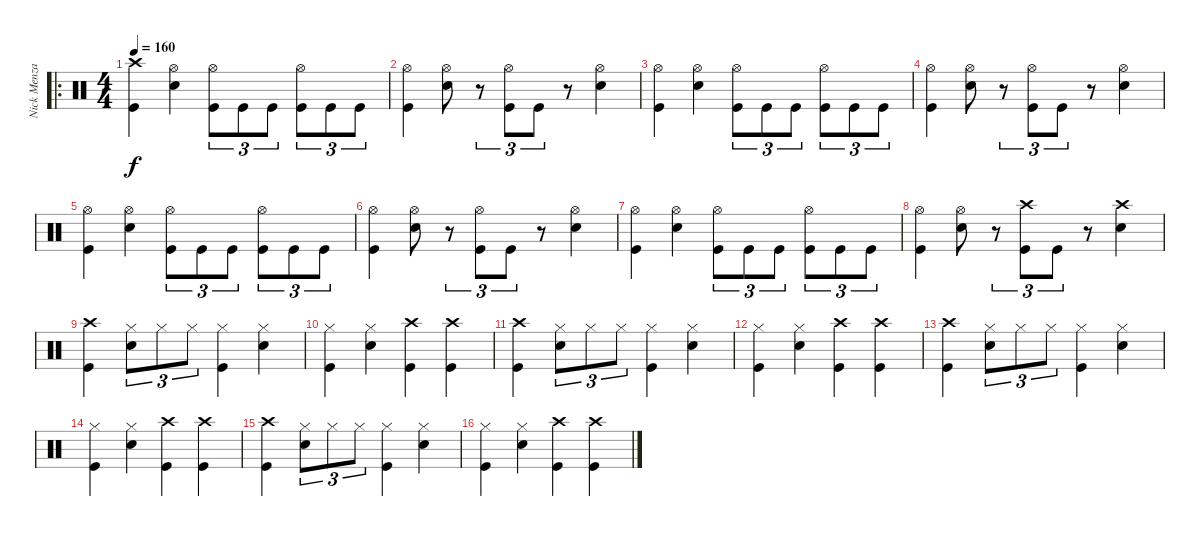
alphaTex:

\track ("Nick Menza" "Nick Menza") {instrument percussion}
\staff {score}
\articulation defaults
\ro
\ts (4 4)
\tempo 160
\clef neutral
\ks c
("Crash high (hit)" "Kick (hit)").4{dy f} ("Hi-Hat (open)" "Snare (hit) 2").4 ("Hi-Hat (open)" "Kick (hit)").8{tu (3 2)} "Kick (hit)".8{tu (3 2)} "Kick (hit)".8{tu (3 2)} ("Hi-Hat (open)" "Kick (hit)").8{tu (3 2)} "Kick (hit)".8{tu (3 2)} "Kick (hit)".8{tu (3 2)} |
("Hi-Hat (open)" "Kick (hit)").4 ("Hi-Hat (open)" "Snare (hit) 2").8 r.8{tu (3 2)} ("Hi-Hat (open)" "Kick (hit)").8{tu (3 2)} "Kick (hit)".8{tu (3 2)} r.8 ("Hi-Hat (open)" "Snare (hit) 2").4 |
("Hi-Hat (open)" "Kick (hit)").4 ("Hi-Hat (open)" "Snare (hit) 2").4 ("Hi-Hat (open)" "Kick (hit)").8{tu (3 2)} "Kick (hit)".8{tu (3 2)} "Kick (hit)".8{tu (3 2)} ("Hi-Hat (open)" "Kick (hit)").8{tu (3 2)} "Kick (hit)".8{tu (3 2)} "Kick (hit)".8{tu (3 2)} |
("Hi-Hat (open)" "Kick (hit)").4 ("Hi-Hat (open)" "Snare (hit) 2").8 r.8{tu (3 2)} ("Hi-Hat (open)" "Kick (hit)").8{tu (3 2)} "Kick (hit)".8{tu (3 2)} r.8 ("Hi-Hat (open)" "Snare (hit) 2").4 |
("Hi-Hat (open)" "Kick (hit)").4 ("Hi-Hat (open)" "Snare (hit) 2").4 ("Hi-Hat (open)" "Kick (hit)").8{tu (3 2)} "Kick (hit)".8{tu (3 2)} "Kick (hit)".8{tu (3 2)} ("Hi-Hat (open)" "Kick (hit)").8{tu (3 2)} "Kick (hit)".8{tu (3 2)} "Kick (hit)".8{tu (3 2)} |
("Hi-Hat (open)" "Kick (hit)").4 ("Hi-Hat (open)" "Snare (hit) 2").8 r.8{tu (3 2)} ("Hi-Hat (open)" "Kick (hit)").8{tu (3 2)} "Kick (hit)".8{tu (3 2)} r.8 ("Hi-Hat (open)" "Snare (hit) 2").4 |
("Hi-Hat (open)" "Kick (hit)").4 ("Hi-Hat (open)" "Snare (hit) 2").4 ("Hi-Hat (open)" "Kick (hit)").8{tu (3 2)} "Kick (hit)".8{tu (3 2)} "Kick (hit)".8{tu (3 2)} ("Hi-Hat (open)" "Kick (hit)").8{tu (3 2)} "Kick (hit)".8{tu (3 2)} "Kick (hit)".8{tu (3 2)} |
("Hi-Hat (open)" "Kick (hit)").4 ("Hi-Hat (open)" "Snare (hit) 2").8 r.8{tu (3 2)} ("Crash high (hit)" "Kick (hit)").8{tu (3 2)} "Kick (hit)".8{tu (3 2)} r.8 ("Crash high (hit)" "Snare (hit) 2").4 |
("Crash high (hit)" "Kick (hit)").4 ("Hi-Hat (closed)" "Snare (hit) 2").8{tu (3 2)} "Hi-Hat (closed)".8{tu (3 2)} "Hi-Hat (closed)".8{tu (3 2)} ("Hi-Hat (closed)" "Kick (hit)").4 ("Hi-Hat (closed)" "Snare (hit) 2").4 |
("Hi-Hat (closed)" "Kick (hit)").4 ("Hi-Hat (closed)" "Snare (hit) 2").4 ("Crash high (hit)" "Kick (hit)").4 ("Crash high (hit)" "Kick (hit)").4 |
("Crash high (hit)" "Kick (hit)").4 ("Hi-Hat (closed)" "Snare (hit) 2").8{tu (3 2)} "Hi-Hat (closed)".8{tu (3 2)} "Hi-Hat (closed)".8{tu (3 2)} ("Hi-Hat (closed)" "Kick (hit)").4 ("Hi-Hat (closed)" "Snare (hit) 2").4 |
("Hi-Hat (closed)" "Kick (hit)").4 ("Hi-Hat (closed)" "Snare (hit) 2").4 ("Crash high (hit)" "Kick (hit)").4 ("Crash high (hit)" "Kick (hit)").4 |
("Crash high (hit)" "Kick (hit)").4 ("Hi-Hat (closed)" "Snare (hit) 2").8{tu (3 2)} "Hi-Hat (closed)".8{tu (3 2)} "Hi-Hat (closed)".8{tu (3 2)} ("Hi-Hat (closed)" "Kick (hit)").4 ("Hi-Hat (closed)" "Snare (hit) 2").4 |
("Hi-Hat (closed)" "Kick (hit)").4 ("Hi-Hat (closed)" "Snare (hit) 2").4 ("Crash high (hit)" "Kick (hit)").4 ("Crash high (hit)" "Kick (hit)").4 |
("Crash high (hit)" "Kick (hit)").4 ("Hi-Hat (closed)" "Snare (hit) 2").8{tu (3 2)} "Hi-Hat (closed)".8{tu (3 2)} "Hi-Hat (closed)".8{tu (3 2)} ("Hi-Hat (closed)" "Kick (hit)").4 ("Hi-Hat (closed)" "Snare (hit) 2").4 |
("Hi-Hat (closed)" "Kick (hit)").4 ("Hi-Hat (closed)" "Snare (hit) 2").4 ("Crash high (hit)" "Kick (hit)").4 ("Crash high (hit)" "Kick (hit)").4
